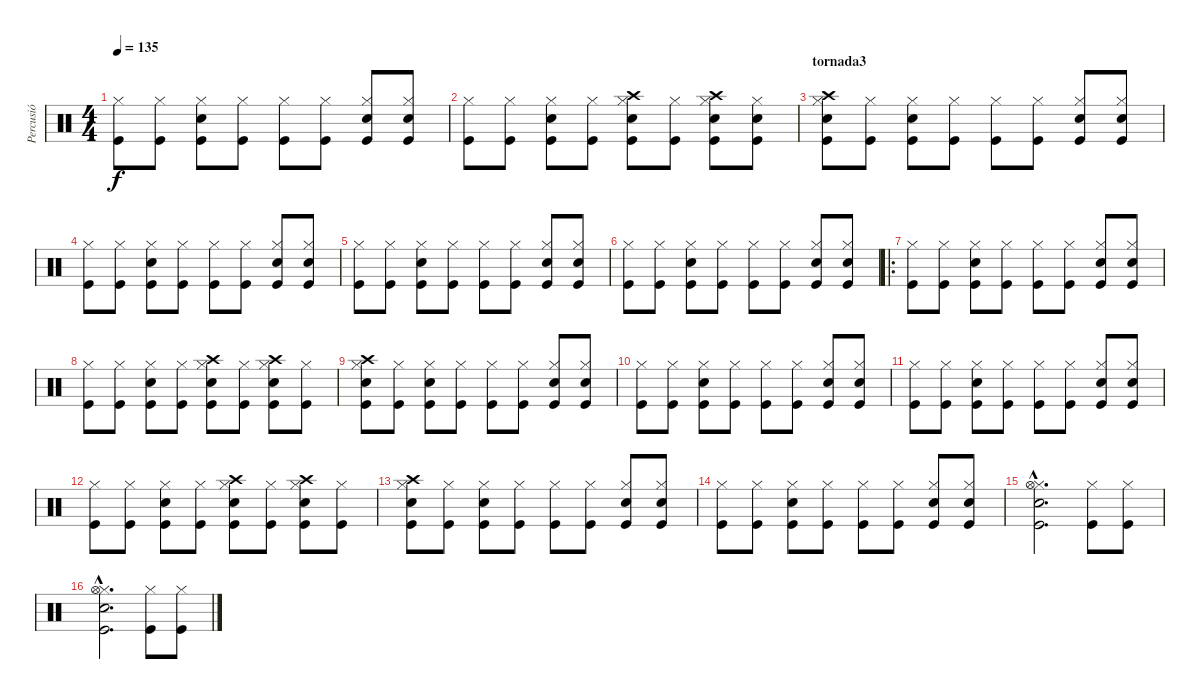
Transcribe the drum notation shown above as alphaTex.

\track ("Percusió" "Percusió") {instrument percussion}
\staff {score}
\articulation defaults
\ts (4 4)
\tempo 135
\clef neutral
\ks c
("Kick (hit)" "Hi-Hat (closed)").8{dy f} ("Kick (hit)" "Hi-Hat (closed)").8 ("Kick (hit)" "Hi-Hat (closed)" "Snare (hit) 2").8 ("Kick (hit)" "Hi-Hat (closed)").8 ("Kick (hit)" "Hi-Hat (closed)").8 ("Kick (hit)" "Hi-Hat (closed)").8 ("Kick (hit)" "Hi-Hat (closed)" "Snare (hit) 2").8 ("Kick (hit)" "Hi-Hat (closed)" "Snare (hit) 2").8 |
("Kick (hit)" "Hi-Hat (closed)").8 ("Kick (hit)" "Hi-Hat (closed)").8 ("Kick (hit)" "Hi-Hat (closed)" "Snare (hit) 2").8 ("Kick (hit)" "Hi-Hat (closed)").8 ("Kick (hit)" "Hi-Hat (closed)" "Snare (hit) 2" "Crash high (hit)").8 ("Kick (hit)" "Hi-Hat (closed)").8 ("Kick (hit)" "Hi-Hat (closed)" "Snare (hit) 2" "Crash high (hit)").8 ("Kick (hit)" "Hi-Hat (closed)" "Snare (hit) 2").8 |
\section ("" "tornada3")
("Kick (hit)" "Hi-Hat (closed)" "Snare (hit) 2" "Crash high (hit)").8 ("Kick (hit)" "Hi-Hat (closed)").8 ("Kick (hit)" "Hi-Hat (closed)" "Snare (hit) 2").8 ("Kick (hit)" "Hi-Hat (closed)").8 ("Kick (hit)" "Hi-Hat (closed)").8 ("Kick (hit)" "Hi-Hat (closed)").8 ("Kick (hit)" "Hi-Hat (closed)" "Snare (hit) 2").8 ("Kick (hit)" "Hi-Hat (closed)" "Snare (hit) 2").8 |
("Kick (hit)" "Hi-Hat (closed)").8 ("Kick (hit)" "Hi-Hat (closed)").8 ("Kick (hit)" "Hi-Hat (closed)" "Snare (hit) 2").8 ("Kick (hit)" "Hi-Hat (closed)").8 ("Kick (hit)" "Hi-Hat (closed)").8 ("Kick (hit)" "Hi-Hat (closed)").8 ("Kick (hit)" "Hi-Hat (closed)" "Snare (hit) 2").8 ("Kick (hit)" "Hi-Hat (closed)" "Snare (hit) 2").8 |
("Kick (hit)" "Hi-Hat (closed)").8 ("Kick (hit)" "Hi-Hat (closed)").8 ("Kick (hit)" "Hi-Hat (closed)" "Snare (hit) 2").8 ("Kick (hit)" "Hi-Hat (closed)").8 ("Kick (hit)" "Hi-Hat (closed)").8 ("Kick (hit)" "Hi-Hat (closed)").8 ("Kick (hit)" "Hi-Hat (closed)" "Snare (hit) 2").8 ("Kick (hit)" "Hi-Hat (closed)" "Snare (hit) 2").8 |
("Kick (hit)" "Hi-Hat (closed)").8 ("Kick (hit)" "Hi-Hat (closed)").8 ("Kick (hit)" "Hi-Hat (closed)" "Snare (hit) 2").8 ("Kick (hit)" "Hi-Hat (closed)").8 ("Kick (hit)" "Hi-Hat (closed)").8 ("Kick (hit)" "Hi-Hat (closed)").8 ("Kick (hit)" "Hi-Hat (closed)" "Snare (hit) 2").8 ("Kick (hit)" "Hi-Hat (closed)" "Snare (hit) 2").8 |
\ro
("Kick (hit)" "Hi-Hat (closed)").8 ("Kick (hit)" "Hi-Hat (closed)").8 ("Kick (hit)" "Hi-Hat (closed)" "Snare (hit) 2").8 ("Kick (hit)" "Hi-Hat (closed)").8 ("Kick (hit)" "Hi-Hat (closed)").8 ("Kick (hit)" "Hi-Hat (closed)").8 ("Kick (hit)" "Hi-Hat (closed)" "Snare (hit) 2").8 ("Kick (hit)" "Hi-Hat (closed)" "Snare (hit) 2").8 |
("Kick (hit)" "Hi-Hat (closed)").8 ("Kick (hit)" "Hi-Hat (closed)").8 ("Kick (hit)" "Hi-Hat (closed)" "Snare (hit) 2").8 ("Kick (hit)" "Hi-Hat (closed)").8 ("Kick (hit)" "Hi-Hat (closed)" "Snare (hit) 2" "Crash high (hit)").8 ("Kick (hit)" "Hi-Hat (closed)").8 ("Kick (hit)" "Hi-Hat (closed)" "Snare (hit) 2" "Crash high (hit)").8 ("Kick (hit)" "Hi-Hat (closed)").8 |
("Kick (hit)" "Hi-Hat (closed)" "Snare (hit) 2" "Crash high (hit)").8 ("Kick (hit)" "Hi-Hat (closed)").8 ("Kick (hit)" "Hi-Hat (closed)" "Snare (hit) 2").8 ("Kick (hit)" "Hi-Hat (closed)").8 ("Kick (hit)" "Hi-Hat (closed)").8 ("Kick (hit)" "Hi-Hat (closed)").8 ("Kick (hit)" "Hi-Hat (closed)" "Snare (hit) 2").8 ("Kick (hit)" "Hi-Hat (closed)" "Snare (hit) 2").8 |
("Kick (hit)" "Hi-Hat (closed)").8 ("Kick (hit)" "Hi-Hat (closed)").8 ("Kick (hit)" "Hi-Hat (closed)" "Snare (hit) 2").8 ("Kick (hit)" "Hi-Hat (closed)").8 ("Kick (hit)" "Hi-Hat (closed)").8 ("Kick (hit)" "Hi-Hat (closed)").8 ("Kick (hit)" "Hi-Hat (closed)" "Snare (hit) 2").8 ("Kick (hit)" "Hi-Hat (closed)" "Snare (hit) 2").8 |
("Kick (hit)" "Hi-Hat (closed)").8 ("Kick (hit)" "Hi-Hat (closed)").8 ("Kick (hit)" "Hi-Hat (closed)" "Snare (hit) 2").8 ("Kick (hit)" "Hi-Hat (closed)").8 ("Kick (hit)" "Hi-Hat (closed)").8 ("Kick (hit)" "Hi-Hat (closed)").8 ("Kick (hit)" "Hi-Hat (closed)" "Snare (hit) 2").8 ("Kick (hit)" "Hi-Hat (closed)" "Snare (hit) 2").8 |
("Kick (hit)" "Hi-Hat (closed)").8 ("Kick (hit)" "Hi-Hat (closed)").8 ("Kick (hit)" "Hi-Hat (closed)" "Snare (hit) 2").8 ("Kick (hit)" "Hi-Hat (closed)").8 ("Kick (hit)" "Hi-Hat (closed)" "Snare (hit) 2" "Crash high (hit)").8 ("Kick (hit)" "Hi-Hat (closed)").8 ("Kick (hit)" "Hi-Hat (closed)" "Snare (hit) 2" "Crash high (hit)").8 ("Kick (hit)" "Hi-Hat (closed)").8 |
("Kick (hit)" "Hi-Hat (closed)" "Snare (hit) 2" "Crash high (hit)").8 ("Kick (hit)" "Hi-Hat (closed)").8 ("Kick (hit)" "Hi-Hat (closed)" "Snare (hit) 2").8 ("Kick (hit)" "Hi-Hat (closed)").8 ("Kick (hit)" "Hi-Hat (closed)").8 ("Kick (hit)" "Hi-Hat (closed)").8 ("Kick (hit)" "Hi-Hat (closed)" "Snare (hit) 2").8 ("Kick (hit)" "Hi-Hat (closed)" "Snare (hit) 2").8 |
("Kick (hit)" "Hi-Hat (closed)").8 ("Kick (hit)" "Hi-Hat (closed)").8 ("Kick (hit)" "Hi-Hat (closed)" "Snare (hit) 2").8 ("Kick (hit)" "Hi-Hat (closed)").8 ("Kick (hit)" "Hi-Hat (closed)").8 ("Kick (hit)" "Hi-Hat (closed)").8 ("Kick (hit)" "Hi-Hat (closed)" "Snare (hit) 2").8 ("Kick (hit)" "Hi-Hat (closed)" "Snare (hit) 2").8 |
("Kick (hit)"{hac} "Hi-Hat (closed)"{hac} "Snare (hit) 2"{hac} "Hi-Hat (open)"{hac}).2{d} ("Kick (hit)" "Hi-Hat (closed)").8 ("Kick (hit)" "Hi-Hat (closed)").8 |
("Kick (hit)"{hac} "Hi-Hat (closed)"{hac} "Snare (hit) 2"{hac} "Hi-Hat (open)"{hac}).2{d} ("Kick (hit)" "Hi-Hat (closed)").8 ("Kick (hit)" "Hi-Hat (closed)").8
